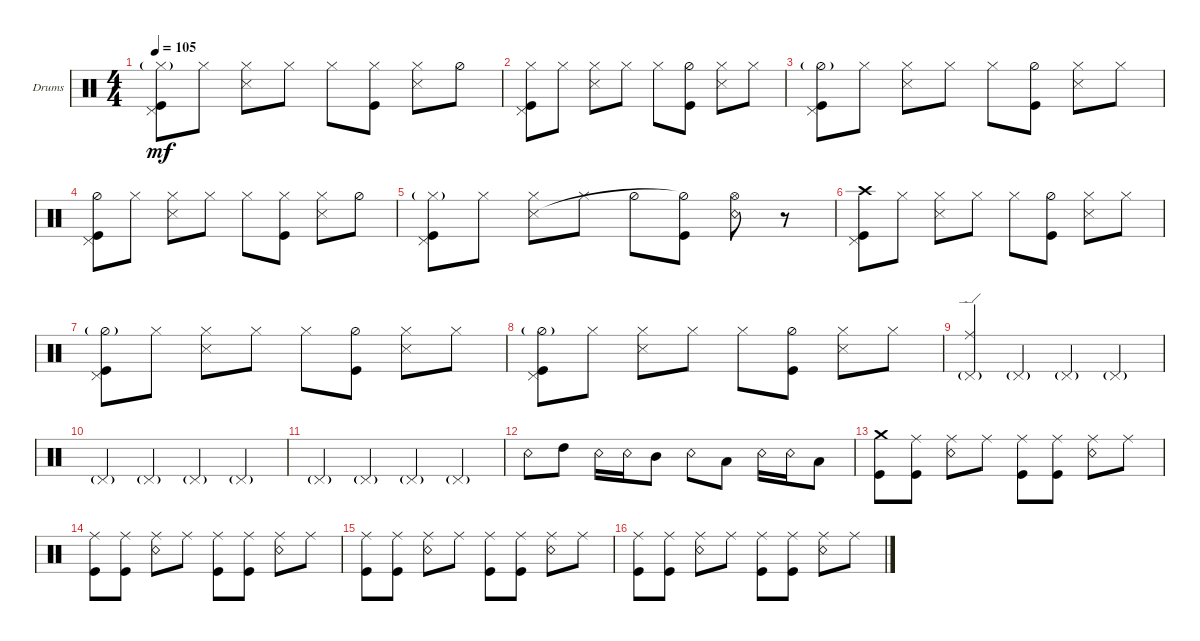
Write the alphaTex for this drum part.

\bracketExtendMode groupsimilarinstruments
\firstSystemTrackNameOrientation horizontal
\otherSystemsTrackNameOrientation horizontal
\track ("Алексей Мещеряков" "Drums") {instrument percussion}
\staff {score}
\articulation defaults
\ts (4 4)
\tempo 105
\clef neutral
\ks c
("Kick (hit)" "Pedal Hi-Hat (hit)" "Hi-Hat (closed)"{g}).8{dy mf} "Hi-Hat (closed)".8 ("Hi-Hat (closed)" "Snare (side stick) 3").8 "Hi-Hat (closed)".8 "Hi-Hat (closed)".8 ("Kick (hit)" "Hi-Hat (closed)").8 ("Hi-Hat (closed)" "Snare (side stick) 3").8 "Hi-Hat (half)".8 |
("Kick (hit)" "Pedal Hi-Hat (hit)" "Hi-Hat (closed)").8 "Hi-Hat (closed)".8 ("Hi-Hat (closed)" "Snare (side stick) 3").8 "Hi-Hat (closed)".8 "Hi-Hat (closed)".8 ("Hi-Hat (half)" "Kick (hit)").8 ("Hi-Hat (closed)" "Snare (side stick) 3").8 "Hi-Hat (closed)".8 |
("Kick (hit)" "Pedal Hi-Hat (hit)" "Hi-Hat (half)"{g}).8 "Hi-Hat (closed)".8 ("Hi-Hat (closed)" "Snare (side stick) 3").8 "Hi-Hat (closed)".8 "Hi-Hat (closed)".8 ("Kick (hit)" "Hi-Hat (half)").8 ("Hi-Hat (closed)" "Snare (side stick) 3").8 "Hi-Hat (closed)".8 |
("Kick (hit)" "Pedal Hi-Hat (hit)" "Hi-Hat (half)").8 "Hi-Hat (closed)".8 ("Hi-Hat (closed)" "Snare (side stick) 3").8 "Hi-Hat (closed)".8 "Hi-Hat (closed)".8 ("Kick (hit)" "Hi-Hat (closed)").8 ("Hi-Hat (closed)" "Snare (side stick) 3").8 "Hi-Hat (half)".8 |
("Kick (hit)" "Pedal Hi-Hat (hit)" "Hi-Hat (closed)"{g}).8 "Hi-Hat (closed)".8 ("Hi-Hat (closed)" "Snare (side stick) 3").8 "Hi-Hat (closed)".8 "Hi-Hat (half)".8 ("Kick (hit)" "Hi-Hat (half)"{t}).8 ("Hi-Hat (open)" "Snare (rim shot)").8 r.8 |
("Kick (hit)" "Crash high (hit)" "Pedal Hi-Hat (hit)").8 "Hi-Hat (closed)".8 ("Hi-Hat (closed)" "Snare (side stick) 3").8 "Hi-Hat (closed)".8 "Hi-Hat (closed)".8 ("Hi-Hat (half)" "Kick (hit)").8 ("Hi-Hat (closed)" "Snare (side stick) 3").8 "Hi-Hat (closed)".8 |
("Kick (hit)" "Pedal Hi-Hat (hit)" "Hi-Hat (half)"{g}).8 "Hi-Hat (closed)".8 ("Hi-Hat (closed)" "Snare (side stick) 3").8 "Hi-Hat (closed)".8 "Hi-Hat (closed)".8 ("Kick (hit)" "Hi-Hat (half)").8 ("Hi-Hat (closed)" "Snare (side stick) 3").8 "Hi-Hat (closed)".8 |
("Kick (hit)" "Pedal Hi-Hat (hit)" "Hi-Hat (half)"{g}).8 "Hi-Hat (closed)".8 ("Hi-Hat (closed)" "Snare (side stick) 3").8 "Hi-Hat (closed)".8 "Hi-Hat (closed)".8 ("Kick (hit)" "Hi-Hat (half)").8 ("Hi-Hat (closed)" "Snare (side stick) 3").8 "Hi-Hat (closed)".8 |
("Pedal Hi-Hat (hit)"{g} "Ride (edge)").4 "Pedal Hi-Hat (hit)"{g}.4 "Pedal Hi-Hat (hit)"{g}.4 "Pedal Hi-Hat (hit)"{g}.4 |
"Pedal Hi-Hat (hit)"{g}.4 "Pedal Hi-Hat (hit)"{g}.4 "Pedal Hi-Hat (hit)"{g}.4 "Pedal Hi-Hat (hit)"{g}.4 |
"Pedal Hi-Hat (hit)"{g}.4 "Pedal Hi-Hat (hit)"{g}.4 "Pedal Hi-Hat (hit)"{g}.4 "Pedal Hi-Hat (hit)"{g}.4 |
"Snare (rim shot)".8 "High Tom (hit)".8 "Snare (rim shot)".16 "Snare (rim shot)".16 "Mid Tom (hit)".8 "Snare (rim shot)".8 "Low Tom (hit)".8 "Snare (rim shot)".16 "Snare (rim shot)".16 "Low Tom (hit)".8 |
("Kick (hit)" "Crash medium (hit)").8 ("Kick (hit)" "Ride (middle)").8 ("Snare (rim shot)" "Ride (middle)").8 "Ride (middle)".8 ("Ride (middle)" "Kick (hit)").8 ("Ride (middle)" "Kick (hit)").8 ("Ride (middle)" "Snare (rim shot)").8 "Ride (middle)".8 |
("Kick (hit)" "Ride (middle)").8 ("Kick (hit)" "Ride (middle)").8 ("Snare (rim shot)" "Ride (middle)").8 "Ride (middle)".8 ("Ride (middle)" "Kick (hit)").8 ("Ride (middle)" "Kick (hit)").8 ("Ride (middle)" "Snare (rim shot)").8 "Ride (middle)".8 |
("Kick (hit)" "Ride (middle)").8 ("Kick (hit)" "Ride (middle)").8 ("Snare (rim shot)" "Ride (middle)").8 "Ride (middle)".8 ("Ride (middle)" "Kick (hit)").8 ("Ride (middle)" "Kick (hit)").8 ("Ride (middle)" "Snare (rim shot)").8 "Ride (middle)".8 |
("Kick (hit)" "Ride (middle)").8 ("Kick (hit)" "Ride (middle)").8 ("Snare (rim shot)" "Ride (middle)").8 "Ride (middle)".8 ("Ride (middle)" "Kick (hit)").8 ("Ride (middle)" "Kick (hit)").8 ("Ride (middle)" "Snare (rim shot)").8 "Ride (middle)".8
